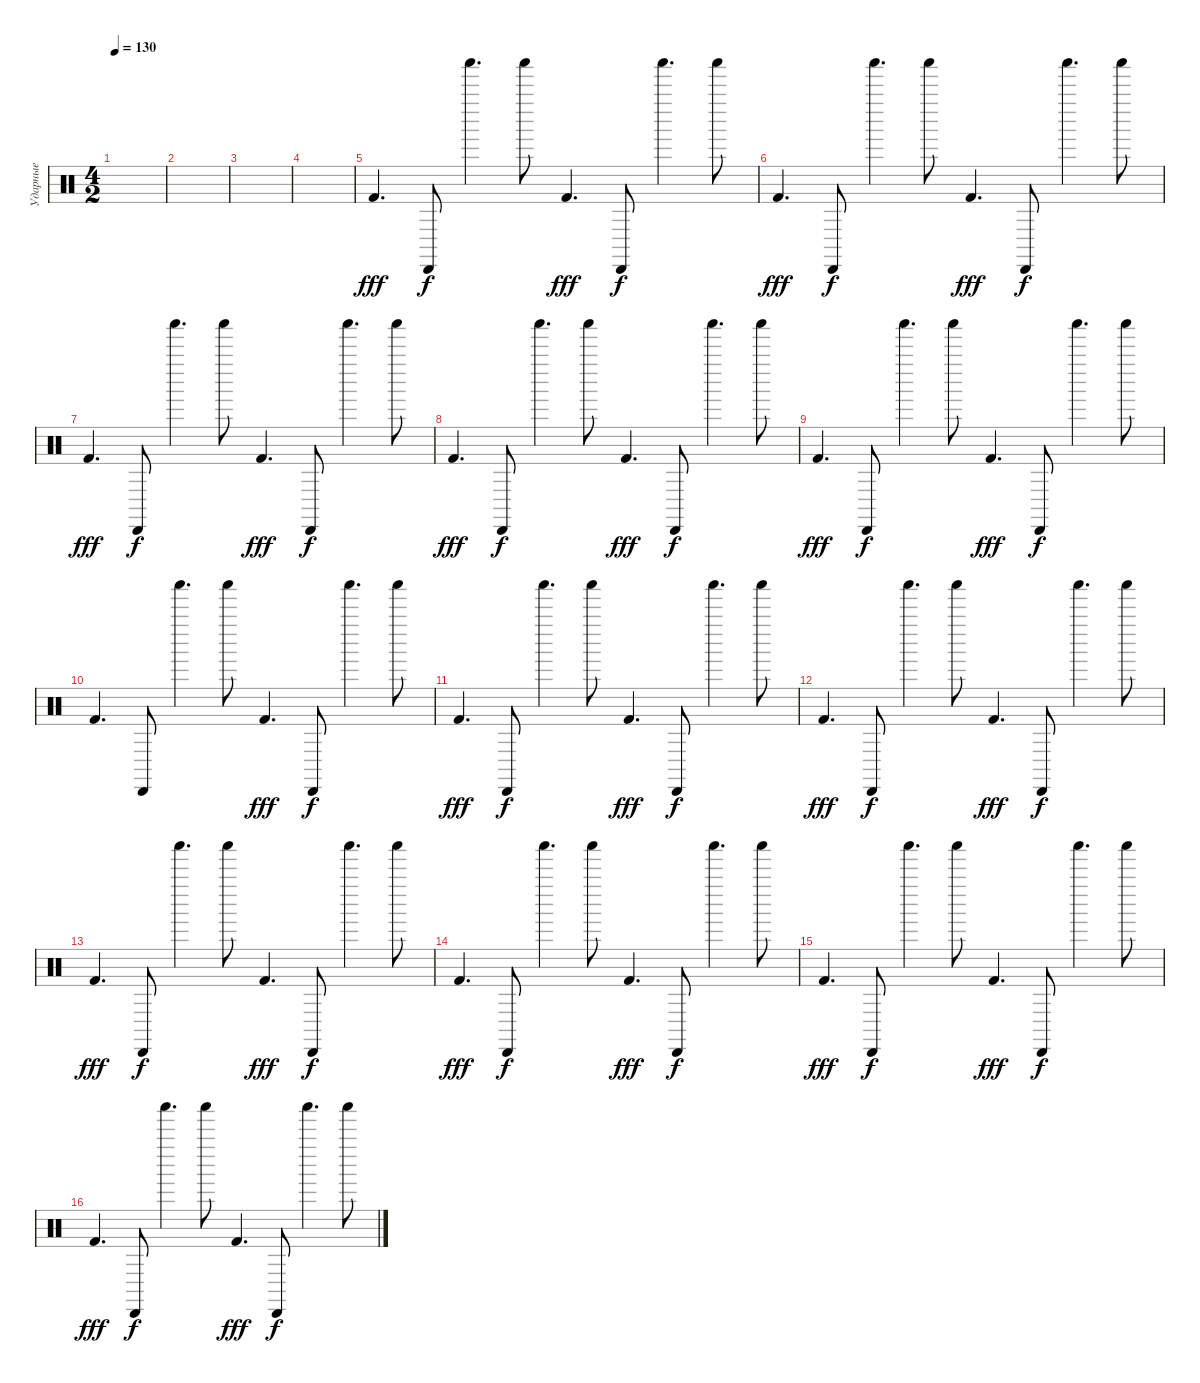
\track ("Ударные" "Ударные") {instrument percussion}
\staff {score}
\articulation defaults
\ts (4 2)
\tempo 130
\clef neutral
\ks c
|
|
|
|
"Kick (hit) 2".4{d dy fff} "Cabasa (hit)".8{dy f} "Shaker (hit)".4{d} "Shaker (hit)".8 "Kick (hit) 2".4{d dy fff} "Cabasa (hit)".8{dy f} "Shaker (hit)".4{d} "Shaker (hit)".8 |
"Kick (hit) 2".4{d dy fff} "Cabasa (hit)".8{dy f} "Shaker (hit)".4{d} "Shaker (hit)".8 "Kick (hit) 2".4{d dy fff} "Cabasa (hit)".8{dy f} "Shaker (hit)".4{d} "Shaker (hit)".8 |
"Kick (hit) 2".4{d dy fff} "Cabasa (hit)".8{dy f} "Shaker (hit)".4{d} "Shaker (hit)".8 "Kick (hit) 2".4{d dy fff} "Cabasa (hit)".8{dy f} "Shaker (hit)".4{d} "Shaker (hit)".8 |
"Kick (hit) 2".4{d dy fff} "Cabasa (hit)".8{dy f} "Shaker (hit)".4{d} "Shaker (hit)".8 "Kick (hit) 2".4{d dy fff} "Cabasa (hit)".8{dy f} "Shaker (hit)".4{d} "Shaker (hit)".8 |
"Kick (hit) 2".4{d dy fff} "Cabasa (hit)".8{dy f} "Shaker (hit)".4{d} "Shaker (hit)".8 "Kick (hit) 2".4{d dy fff} "Cabasa (hit)".8{dy f} "Shaker (hit)".4{d} "Shaker (hit)".8 |
"Kick (hit) 2".4{d} "Cabasa (hit)".8 "Shaker (hit)".4{d} "Shaker (hit)".8 "Kick (hit) 2".4{d dy fff} "Cabasa (hit)".8{dy f} "Shaker (hit)".4{d} "Shaker (hit)".8 |
"Kick (hit) 2".4{d dy fff} "Cabasa (hit)".8{dy f} "Shaker (hit)".4{d} "Shaker (hit)".8 "Kick (hit) 2".4{d dy fff} "Cabasa (hit)".8{dy f} "Shaker (hit)".4{d} "Shaker (hit)".8 |
"Kick (hit) 2".4{d dy fff} "Cabasa (hit)".8{dy f} "Shaker (hit)".4{d} "Shaker (hit)".8 "Kick (hit) 2".4{d dy fff} "Cabasa (hit)".8{dy f} "Shaker (hit)".4{d} "Shaker (hit)".8 |
"Kick (hit) 2".4{d dy fff} "Cabasa (hit)".8{dy f} "Shaker (hit)".4{d} "Shaker (hit)".8 "Kick (hit) 2".4{d dy fff} "Cabasa (hit)".8{dy f} "Shaker (hit)".4{d} "Shaker (hit)".8 |
"Kick (hit) 2".4{d dy fff} "Cabasa (hit)".8{dy f} "Shaker (hit)".4{d} "Shaker (hit)".8 "Kick (hit) 2".4{d dy fff} "Cabasa (hit)".8{dy f} "Shaker (hit)".4{d} "Shaker (hit)".8 |
"Kick (hit) 2".4{d dy fff} "Cabasa (hit)".8{dy f} "Shaker (hit)".4{d} "Shaker (hit)".8 "Kick (hit) 2".4{d dy fff} "Cabasa (hit)".8{dy f} "Shaker (hit)".4{d} "Shaker (hit)".8 |
"Kick (hit) 2".4{d dy fff} "Cabasa (hit)".8{dy f} "Shaker (hit)".4{d} "Shaker (hit)".8 "Kick (hit) 2".4{d dy fff} "Cabasa (hit)".8{dy f} "Shaker (hit)".4{d} "Shaker (hit)".8
